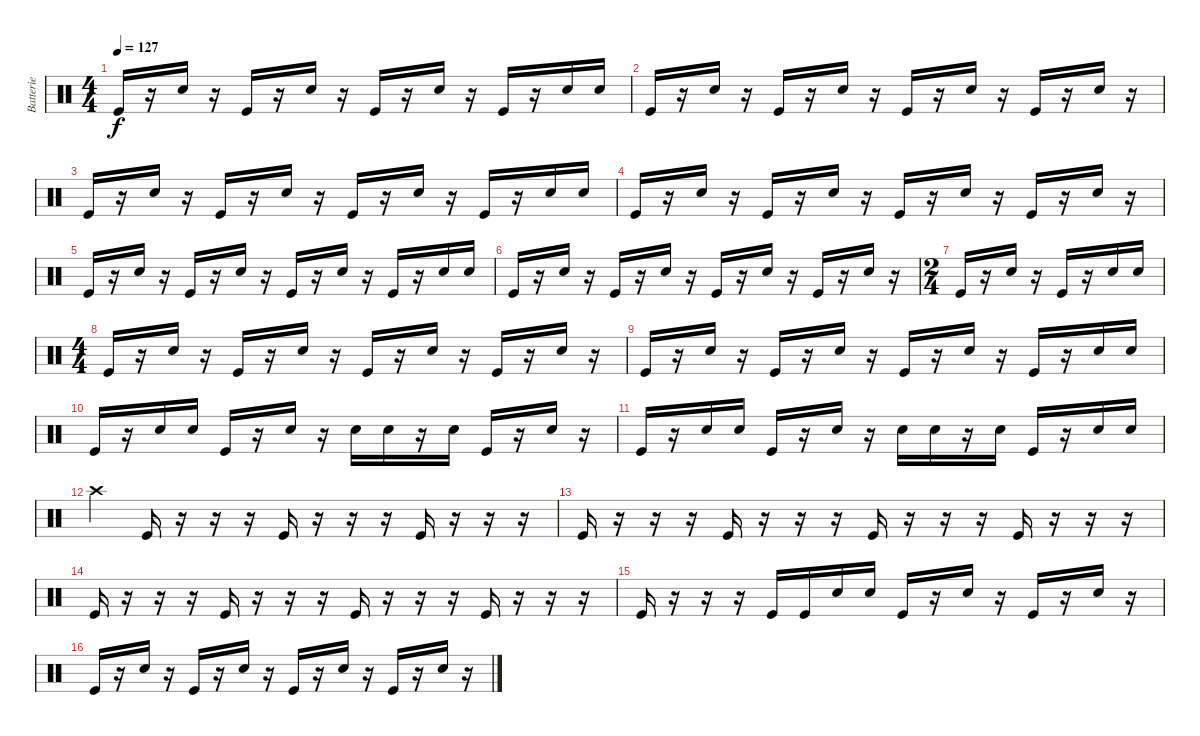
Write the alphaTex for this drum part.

\track ("Batterie" "Batterie") {instrument percussion}
\staff {score}
\articulation defaults
\ts (4 4)
\tempo 127
\clef neutral
\ks c "Kick (hit)".16{dy f}
r.16 "Snare (hit) 2".16 r.16 "Kick (hit)".16 r.16 "Snare (hit) 2".16 r.16 "Kick (hit)".16 r.16 "Snare (hit) 2".16 r.16 "Kick (hit)".16 r.16 "Snare (hit) 2".16 "Snare (hit) 2".16 |
"Kick (hit)".16 r.16 "Snare (hit) 2".16 r.16 "Kick (hit)".16 r.16 "Snare (hit) 2".16 r.16 "Kick (hit)".16 r.16 "Snare (hit) 2".16 r.16 "Kick (hit)".16 r.16 "Snare (hit) 2".16 r.16 |
"Kick (hit)".16 r.16 "Snare (hit) 2".16 r.16 "Kick (hit)".16 r.16 "Snare (hit) 2".16 r.16 "Kick (hit)".16 r.16 "Snare (hit) 2".16 r.16 "Kick (hit)".16 r.16 "Snare (hit) 2".16 "Snare (hit) 2".16 |
"Kick (hit)".16 r.16 "Snare (hit) 2".16 r.16 "Kick (hit)".16 r.16 "Snare (hit) 2".16 r.16 "Kick (hit)".16 r.16 "Snare (hit) 2".16 r.16 "Kick (hit)".16 r.16 "Snare (hit) 2".16 r.16 |
"Kick (hit)".16 r.16 "Snare (hit) 2".16 r.16 "Kick (hit)".16 r.16 "Snare (hit) 2".16 r.16 "Kick (hit)".16 r.16 "Snare (hit) 2".16 r.16 "Kick (hit)".16 r.16 "Snare (hit) 2".16 "Snare (hit) 2".16 |
"Kick (hit)".16 r.16 "Snare (hit) 2".16 r.16 "Kick (hit)".16 r.16 "Snare (hit) 2".16 r.16 "Kick (hit)".16 r.16 "Snare (hit) 2".16 r.16 "Kick (hit)".16 r.16 "Snare (hit) 2".16 r.16 |
\ts (2 4)
"Kick (hit)".16 r.16 "Snare (hit) 2".16 r.16 "Kick (hit)".16 r.16 "Snare (hit) 2".16 "Snare (hit) 2".16 |
\ts (4 4)
"Kick (hit)".16 r.16 "Snare (hit) 2".16 r.16 "Kick (hit)".16 r.16 "Snare (hit) 2".16 r.16 "Kick (hit)".16 r.16 "Snare (hit) 2".16 r.16 "Kick (hit)".16 r.16 "Snare (hit) 2".16 r.16 |
"Kick (hit)".16 r.16 "Snare (hit) 2".16 r.16 "Kick (hit)".16 r.16 "Snare (hit) 2".16 r.16 "Kick (hit)".16 r.16 "Snare (hit) 2".16 r.16 "Kick (hit)".16 r.16 "Snare (hit) 2".16 "Snare (hit) 2".16 |
"Kick (hit)".16 r.16 "Snare (hit) 2".16 "Snare (hit) 2".16 "Kick (hit)".16 r.16 "Snare (hit) 2".16 r.16 "Snare (hit) 2".16 "Snare (hit) 2".16 r.16 "Snare (hit) 2".16 "Kick (hit)".16 r.16 "Snare (hit) 2".16 r.16 |
"Kick (hit)".16 r.16 "Snare (hit) 2".16 "Snare (hit) 2".16 "Kick (hit)".16 r.16 "Snare (hit) 2".16 r.16 "Snare (hit) 2".16 "Snare (hit) 2".16 r.16 "Snare (hit) 2".16 "Kick (hit)".16 r.16 "Snare (hit) 2".16 "Snare (hit) 2".16 |
"Crash high (hit)".4 "Kick (hit)".16 r.16 r.16 r.16 "Kick (hit)".16 r.16 r.16 r.16 "Kick (hit)".16 r.16 r.16 r.16 |
"Kick (hit)".16 r.16 r.16 r.16 "Kick (hit)".16 r.16 r.16 r.16 "Kick (hit)".16 r.16 r.16 r.16 "Kick (hit)".16 r.16 r.16 r.16 |
"Kick (hit)".16 r.16 r.16 r.16 "Kick (hit)".16 r.16 r.16 r.16 "Kick (hit)".16 r.16 r.16 r.16 "Kick (hit)".16 r.16 r.16 r.16 |
"Kick (hit)".16 r.16 r.16 r.16 "Kick (hit)".16 "Kick (hit)".16 "Snare (hit) 2".16 "Snare (hit) 2".16 "Kick (hit)".16 r.16 "Snare (hit) 2".16 r.16 "Kick (hit)".16 r.16 "Snare (hit) 2".16 r.16 |
"Kick (hit)".16 r.16 "Snare (hit) 2".16 r.16 "Kick (hit)".16 r.16 "Snare (hit) 2".16 r.16 "Kick (hit)".16 r.16 "Snare (hit) 2".16 r.16 "Kick (hit)".16 r.16 "Snare (hit) 2".16 r.16
